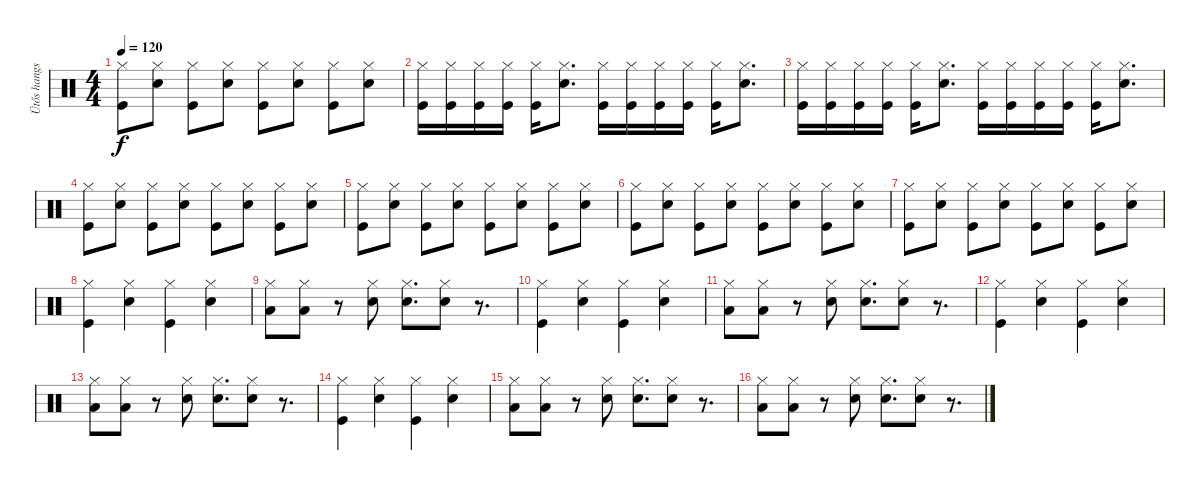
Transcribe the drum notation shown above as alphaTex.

\track ("Ütős hangszer" "Ütős hangs") {instrument percussion}
\staff {score}
\articulation defaults
\ts (4 4)
\tempo 120
\clef neutral
\ks c
("Hi-Hat (closed)" "Kick (hit)").8{dy f} ("Hi-Hat (closed)" "Snare (hit) 2").8 ("Hi-Hat (closed)" "Kick (hit)").8 ("Hi-Hat (closed)" "Snare (hit) 2").8 ("Hi-Hat (closed)" "Kick (hit)").8 ("Hi-Hat (closed)" "Snare (hit) 2").8 ("Hi-Hat (closed)" "Kick (hit)").8 ("Hi-Hat (closed)" "Snare (hit) 2").8 |
("Hi-Hat (closed)" "Kick (hit)").16 ("Hi-Hat (closed)" "Kick (hit)").16 ("Hi-Hat (closed)" "Kick (hit)").16 ("Hi-Hat (closed)" "Kick (hit)").16 ("Hi-Hat (closed)" "Kick (hit)").16 ("Hi-Hat (closed)" "Snare (hit) 2").8{d} ("Hi-Hat (closed)" "Kick (hit)").16 ("Hi-Hat (closed)" "Kick (hit)").16 ("Hi-Hat (closed)" "Kick (hit)").16 ("Hi-Hat (closed)" "Kick (hit)").16 ("Hi-Hat (closed)" "Kick (hit)").16 ("Hi-Hat (closed)" "Snare (hit) 2").8{d} |
("Hi-Hat (closed)" "Kick (hit)").16 ("Hi-Hat (closed)" "Kick (hit)").16 ("Hi-Hat (closed)" "Kick (hit)").16 ("Hi-Hat (closed)" "Kick (hit)").16 ("Hi-Hat (closed)" "Kick (hit)").16 ("Hi-Hat (closed)" "Snare (hit) 2").8{d} ("Hi-Hat (closed)" "Kick (hit)").16 ("Hi-Hat (closed)" "Kick (hit)").16 ("Hi-Hat (closed)" "Kick (hit)").16 ("Hi-Hat (closed)" "Kick (hit)").16 ("Hi-Hat (closed)" "Kick (hit)").16 ("Hi-Hat (closed)" "Snare (hit) 2").8{d} |
("Hi-Hat (closed)" "Kick (hit)").8 ("Hi-Hat (closed)" "Snare (hit) 2").8 ("Hi-Hat (closed)" "Kick (hit)").8 ("Hi-Hat (closed)" "Snare (hit) 2").8 ("Hi-Hat (closed)" "Kick (hit)").8 ("Hi-Hat (closed)" "Snare (hit) 2").8 ("Hi-Hat (closed)" "Kick (hit)").8 ("Hi-Hat (closed)" "Snare (hit) 2").8 |
("Hi-Hat (closed)" "Kick (hit)").8 ("Hi-Hat (closed)" "Snare (hit) 2").8 ("Hi-Hat (closed)" "Kick (hit)").8 ("Hi-Hat (closed)" "Snare (hit) 2").8 ("Hi-Hat (closed)" "Kick (hit)").8 ("Hi-Hat (closed)" "Snare (hit) 2").8 ("Hi-Hat (closed)" "Kick (hit)").8 ("Hi-Hat (closed)" "Snare (hit) 2").8 |
("Hi-Hat (closed)" "Kick (hit)").8 ("Hi-Hat (closed)" "Snare (hit) 2").8 ("Hi-Hat (closed)" "Kick (hit)").8 ("Hi-Hat (closed)" "Snare (hit) 2").8 ("Hi-Hat (closed)" "Kick (hit)").8 ("Hi-Hat (closed)" "Snare (hit) 2").8 ("Hi-Hat (closed)" "Kick (hit)").8 ("Hi-Hat (closed)" "Snare (hit) 2").8 |
("Hi-Hat (closed)" "Kick (hit)").8 ("Hi-Hat (closed)" "Snare (hit) 2").8 ("Hi-Hat (closed)" "Kick (hit)").8 ("Hi-Hat (closed)" "Snare (hit) 2").8 ("Hi-Hat (closed)" "Kick (hit)").8 ("Hi-Hat (closed)" "Snare (hit) 2").8 ("Hi-Hat (closed)" "Kick (hit)").8 ("Hi-Hat (closed)" "Snare (hit) 2").8 |
("Hi-Hat (closed)" "Kick (hit)").4 ("Hi-Hat (closed)" "Snare (hit) 2").4 ("Hi-Hat (closed)" "Kick (hit)").4 ("Hi-Hat (closed)" "Snare (hit) 2").4 |
("Low Floor Tom (hit)" "Hi-Hat (closed)").8 ("Hi-Hat (closed)" "Low Floor Tom (hit)").8 r.8 ("Hi-Hat (closed)" "Snare (hit) 2").8 ("Hi-Hat (closed)" "Snare (hit) 2").8{d} ("Hi-Hat (closed)" "Snare (hit) 2").8 r.8{d} |
("Hi-Hat (closed)" "Kick (hit)").4 ("Hi-Hat (closed)" "Snare (hit) 2").4 ("Hi-Hat (closed)" "Kick (hit)").4 ("Hi-Hat (closed)" "Snare (hit) 2").4 |
("Low Floor Tom (hit)" "Hi-Hat (closed)").8 ("Hi-Hat (closed)" "Low Floor Tom (hit)").8 r.8 ("Hi-Hat (closed)" "Snare (hit) 2").8 ("Hi-Hat (closed)" "Snare (hit) 2").8{d} ("Hi-Hat (closed)" "Snare (hit) 2").8 r.8{d} |
("Hi-Hat (closed)" "Kick (hit)").4 ("Hi-Hat (closed)" "Snare (hit) 2").4 ("Hi-Hat (closed)" "Kick (hit)").4 ("Hi-Hat (closed)" "Snare (hit) 2").4 |
("Low Floor Tom (hit)" "Hi-Hat (closed)").8 ("Hi-Hat (closed)" "Low Floor Tom (hit)").8 r.8 ("Hi-Hat (closed)" "Snare (hit) 2").8 ("Hi-Hat (closed)" "Snare (hit) 2").8{d} ("Hi-Hat (closed)" "Snare (hit) 2").8 r.8{d} |
("Hi-Hat (closed)" "Kick (hit)").4 ("Hi-Hat (closed)" "Snare (hit) 2").4 ("Hi-Hat (closed)" "Kick (hit)").4 ("Hi-Hat (closed)" "Snare (hit) 2").4 |
("Low Floor Tom (hit)" "Hi-Hat (closed)").8 ("Hi-Hat (closed)" "Low Floor Tom (hit)").8 r.8 ("Hi-Hat (closed)" "Snare (hit) 2").8 ("Hi-Hat (closed)" "Snare (hit) 2").8{d} ("Hi-Hat (closed)" "Snare (hit) 2").8 r.8{d} |
("Low Floor Tom (hit)" "Hi-Hat (closed)").8 ("Hi-Hat (closed)" "Low Floor Tom (hit)").8 r.8 ("Hi-Hat (closed)" "Snare (hit) 2").8 ("Hi-Hat (closed)" "Snare (hit) 2").8{d} ("Hi-Hat (closed)" "Snare (hit) 2").8 r.8{d}
